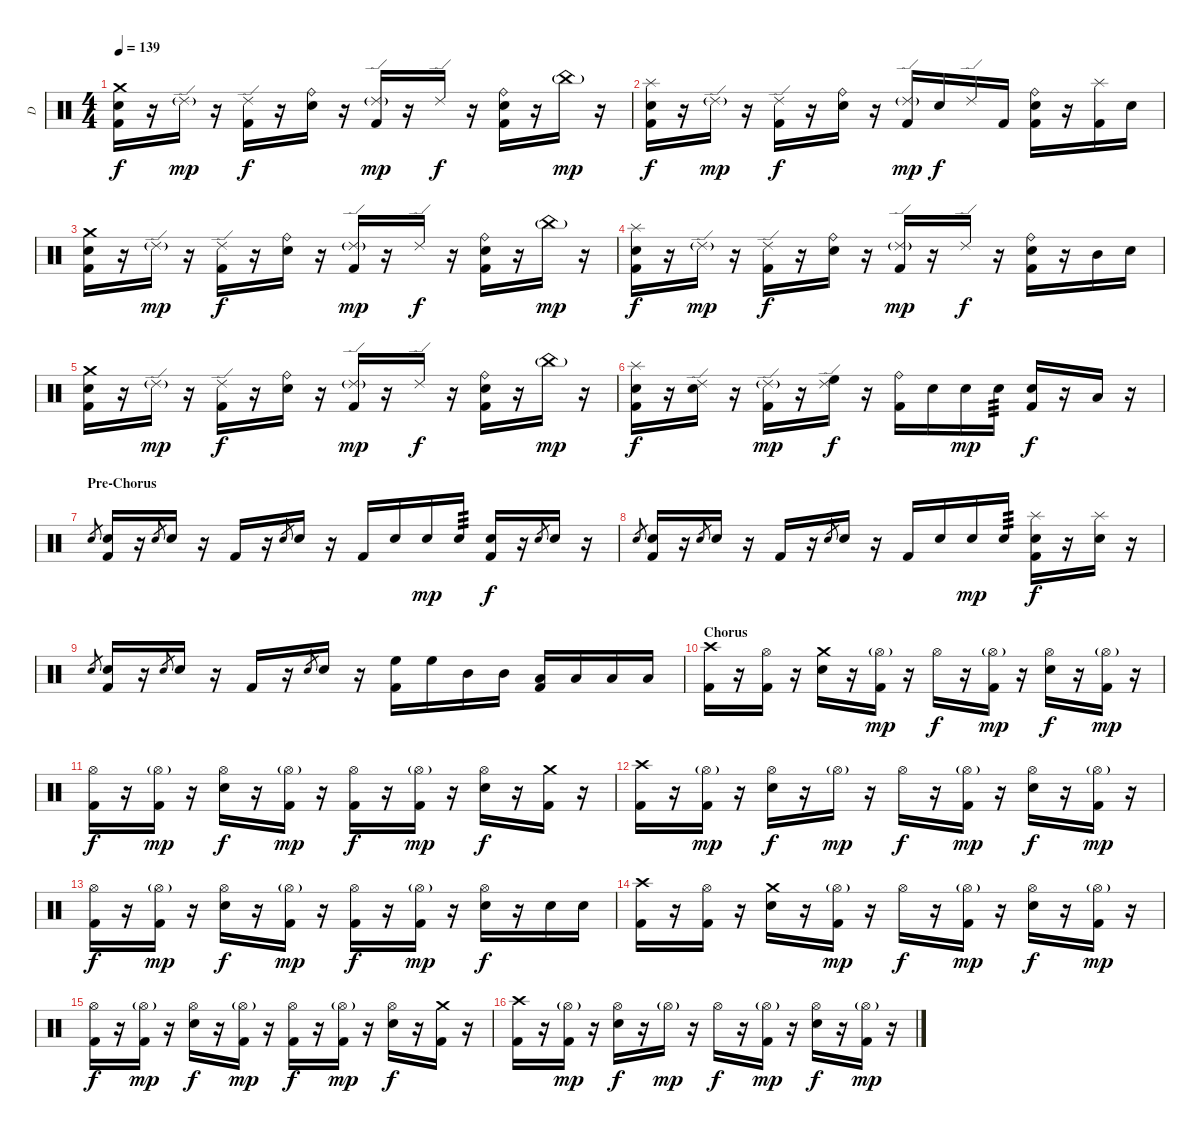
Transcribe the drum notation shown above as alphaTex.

\track ("D" "D") {instrument percussion}
\staff {score}
\articulation defaults
\ts (4 4)
\tempo 139
\clef neutral
\ks c
("Crash medium (hit)" "Electric Snare (hit)" "Kick (hit) 2").16{dy f} r.16 "Ride (edge) 2"{g}.16{dy mp} r.16 ("Ride (edge) 2" "Kick (hit) 2").16{dy f} r.16 ("Ride (bell)" "Electric Snare (hit)").16 r.16 ("Ride (edge) 2"{g} "Kick (hit) 2").16{dy mp} r.16 "Ride (edge) 2".16{dy f} r.16 ("Ride (bell)" "Electric Snare (hit)" "Kick (hit) 2").16 r.16 "China (hit)"{g}.16{dy mp} r.16 |
("Splash (hit)" "Electric Snare (hit)" "Kick (hit) 2").16{dy f} r.16 "Ride (edge) 2"{g}.16{dy mp} r.16 ("Ride (edge) 2" "Kick (hit) 2").16{dy f} r.16 ("Ride (bell)" "Electric Snare (hit)").16 r.16 ("Ride (edge) 2"{g} "Kick (hit) 2").16{dy mp} "Electric Snare (hit)".16{dy f} "Ride (edge) 2".16 "Kick (hit) 2".16 ("Ride (bell)" "Electric Snare (hit)" "Kick (hit) 2").16 r.16 ("Splash (hit)" "Kick (hit) 2").16 "Electric Snare (hit)".16 |
("Crash medium (hit)" "Electric Snare (hit)" "Kick (hit) 2").16{volume 15} r.16 "Ride (edge) 2"{g}.16{dy mp} r.16 ("Ride (edge) 2" "Kick (hit) 2").16{dy f} r.16 ("Ride (bell)" "Electric Snare (hit)").16 r.16 ("Ride (edge) 2"{g} "Kick (hit) 2").16{dy mp} r.16 "Ride (edge) 2".16{dy f} r.16 ("Ride (bell)" "Electric Snare (hit)" "Kick (hit) 2").16 r.16 "China (hit)"{g}.16{dy mp} r.16 |
("Splash (hit)" "Electric Snare (hit)" "Kick (hit) 2").16{dy f} r.16 "Ride (edge) 2"{g}.16{dy mp} r.16 ("Ride (edge) 2" "Kick (hit) 2").16{dy f} r.16 ("Ride (bell)" "Electric Snare (hit)").16 r.16 ("Ride (edge) 2"{g} "Kick (hit) 2").16{dy mp} r.16 "Ride (edge) 2".16{dy f} r.16 ("Ride (bell)" "Electric Snare (hit)" "Kick (hit) 2").16 r.16 "Mid Tom (hit)".16 "Electric Snare (hit)".16 |
("Crash medium (hit)" "Electric Snare (hit)" "Kick (hit) 2").16 r.16 "Ride (edge) 2"{g}.16{dy mp} r.16 ("Ride (edge) 2" "Kick (hit) 2").16{dy f} r.16 ("Ride (bell)" "Electric Snare (hit)").16 r.16 ("Ride (edge) 2"{g} "Kick (hit) 2").16{dy mp} r.16 "Ride (edge) 2".16{dy f} r.16 ("Ride (bell)" "Electric Snare (hit)" "Kick (hit) 2").16 r.16 "China (hit)"{g}.16{dy mp} r.16 |
("Splash (hit)" "Electric Snare (hit)" "Kick (hit) 2").16{dy f} r.16 ("Ride (edge) 2" "Electric Snare (hit)").16 r.16 ("Ride (edge) 2"{g} "Kick (hit) 2").16{dy mp} r.16 ("Ride (edge) 2" "High Floor Tom (hit)").16{dy f} r.16 ("Ride (bell)" "Kick (hit) 2").16 "Electric Snare (hit)".16 "Electric Snare (hit)".16{dy mp} "Electric Snare (hit)".16{tp 3} ("Electric Snare (hit)" "Kick (hit) 2").16{dy f} r.16 "Low Tom (hit)".16 r.16 |
\section ("" "Pre-Chorus")
"Electric Snare (hit)".8{gr} ("Electric Snare (hit)" "Kick (hit) 2").16 r.16 "Electric Snare (hit)".8{gr} "Electric Snare (hit)".16 r.16 "Kick (hit) 2".16 r.16 "Electric Snare (hit)".8{gr} "Electric Snare (hit)".16 r.16 "Kick (hit) 2".16 "Electric Snare (hit)".16 "Electric Snare (hit)".16{dy mp} "Electric Snare (hit)".16{tp 3} ("Electric Snare (hit)" "Kick (hit) 2").16{dy f} r.16 "Electric Snare (hit)".8{gr} "Electric Snare (hit)".16 r.16 |
"Electric Snare (hit)".8{gr} ("Electric Snare (hit)" "Kick (hit) 2").16 r.16 "Electric Snare (hit)".8{gr} "Electric Snare (hit)".16 r.16 "Kick (hit) 2".16 r.16 "Electric Snare (hit)".8{gr} "Electric Snare (hit)".16 r.16 "Kick (hit) 2".16 "Electric Snare (hit)".16 "Electric Snare (hit)".16{dy mp} "Electric Snare (hit)".16{tp 3} ("Splash (hit)" "Electric Snare (hit)" "Kick (hit) 2").16{dy f} r.16 ("Splash (hit)" "Electric Snare (hit)").16 r.16 |
"Electric Snare (hit)".8{gr} ("Electric Snare (hit)" "Kick (hit) 2").16 r.16 "Electric Snare (hit)".8{gr} "Electric Snare (hit)".16 r.16 "Kick (hit) 2".16 r.16 "Electric Snare (hit)".8{gr} "Electric Snare (hit)".16 r.16 ("High Floor Tom (hit)" "Kick (hit) 2").16 "High Floor Tom (hit)".16 "Mid Tom (hit)".16 "Mid Tom (hit)".16 ("Low Tom (hit)" "Kick (hit) 2").16 "Low Tom (hit)".16 "Low Floor Tom (hit)".16 "Low Floor Tom (hit)".16 |
\section ("" "Chorus")
("Crash high (hit)" "Kick (hit) 2").16 r.16 ("Hi-Hat (open)" "Kick (hit) 2").16 r.16 ("Crash medium (hit)" "Electric Snare (hit)").16 r.16 ("Hi-Hat (open)"{g} "Kick (hit) 2").16{dy mp} r.16 "Hi-Hat (open)".16{dy f} r.16 ("Hi-Hat (open)"{g} "Kick (hit) 2").16{dy mp} r.16 ("Hi-Hat (open)" "Electric Snare (hit)").16{dy f} r.16 ("Hi-Hat (open)"{g} "Kick (hit) 2").16{dy mp} r.16 |
("Hi-Hat (open)" "Kick (hit) 2").16{dy f} r.16 ("Hi-Hat (open)"{g} "Kick (hit) 2").16{dy mp} r.16 ("Hi-Hat (open)" "Electric Snare (hit)").16{dy f} r.16 ("Hi-Hat (open)"{g} "Kick (hit) 2").16{dy mp} r.16 ("Hi-Hat (open)" "Kick (hit) 2").16{dy f} r.16 ("Hi-Hat (open)"{g} "Kick (hit) 2").16{dy mp} r.16 ("Hi-Hat (open)" "Electric Snare (hit)").16{dy f} r.16 ("Crash medium (hit)" "Kick (hit) 2").16 r.16 |
("Crash high (hit)" "Kick (hit) 2").16 r.16 ("Hi-Hat (open)"{g} "Kick (hit) 2").16{dy mp} r.16 ("Hi-Hat (open)" "Electric Snare (hit)").16{dy f} r.16 "Hi-Hat (open)"{g}.16{dy mp} r.16 "Hi-Hat (open)".16{dy f} r.16 ("Hi-Hat (open)"{g} "Kick (hit) 2").16{dy mp} r.16 ("Hi-Hat (open)" "Electric Snare (hit)").16{dy f} r.16 ("Hi-Hat (open)"{g} "Kick (hit) 2").16{dy mp} r.16 |
("Hi-Hat (open)" "Kick (hit) 2").16{dy f} r.16 ("Hi-Hat (open)"{g} "Kick (hit) 2").16{dy mp} r.16 ("Hi-Hat (open)" "Electric Snare (hit)").16{dy f} r.16 ("Hi-Hat (open)"{g} "Kick (hit) 2").16{dy mp} r.16 ("Hi-Hat (open)" "Kick (hit) 2").16{dy f} r.16 ("Hi-Hat (open)"{g} "Kick (hit) 2").16{dy mp} r.16 ("Hi-Hat (open)" "Electric Snare (hit)").16{dy f} r.16 "Electric Snare (hit)".16 "Electric Snare (hit)".16 |
("Crash high (hit)" "Kick (hit) 2").16 r.16 ("Hi-Hat (open)" "Kick (hit) 2").16 r.16 ("Crash medium (hit)" "Electric Snare (hit)").16 r.16 ("Hi-Hat (open)"{g} "Kick (hit) 2").16{dy mp} r.16 "Hi-Hat (open)".16{dy f} r.16 ("Hi-Hat (open)"{g} "Kick (hit) 2").16{dy mp} r.16 ("Hi-Hat (open)" "Electric Snare (hit)").16{dy f} r.16 ("Hi-Hat (open)"{g} "Kick (hit) 2").16{dy mp} r.16 |
("Hi-Hat (open)" "Kick (hit) 2").16{dy f} r.16 ("Hi-Hat (open)"{g} "Kick (hit) 2").16{dy mp} r.16 ("Hi-Hat (open)" "Electric Snare (hit)").16{dy f} r.16 ("Hi-Hat (open)"{g} "Kick (hit) 2").16{dy mp} r.16 ("Hi-Hat (open)" "Kick (hit) 2").16{dy f} r.16 ("Hi-Hat (open)"{g} "Kick (hit) 2").16{dy mp} r.16 ("Hi-Hat (open)" "Electric Snare (hit)").16{dy f} r.16 ("Crash medium (hit)" "Kick (hit) 2").16 r.16 |
("Crash high (hit)" "Kick (hit) 2").16 r.16 ("Hi-Hat (open)"{g} "Kick (hit) 2").16{dy mp} r.16 ("Hi-Hat (open)" "Electric Snare (hit)").16{dy f} r.16 "Hi-Hat (open)"{g}.16{dy mp} r.16 "Hi-Hat (open)".16{dy f} r.16 ("Hi-Hat (open)"{g} "Kick (hit) 2").16{dy mp} r.16 ("Hi-Hat (open)" "Electric Snare (hit)").16{dy f} r.16 ("Hi-Hat (open)"{g} "Kick (hit) 2").16{dy mp} r.16
